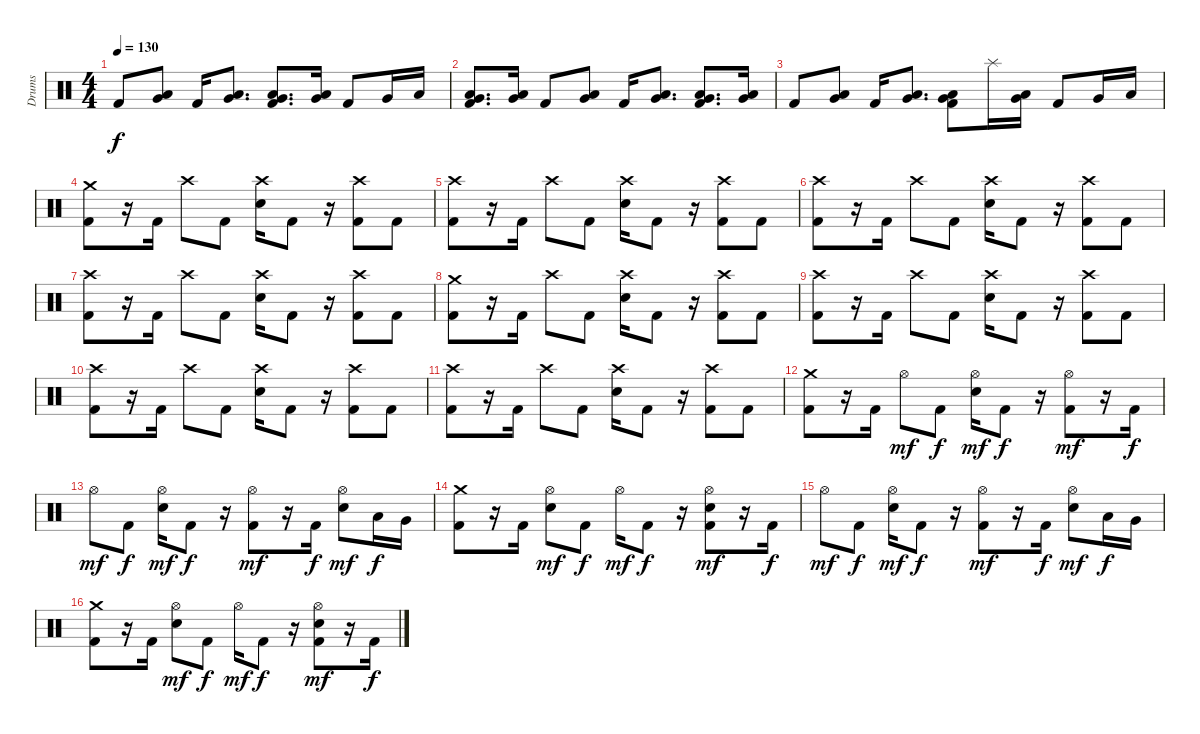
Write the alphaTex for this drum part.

\track ("Drums" "Drums") {instrument percussion}
\staff {score}
\articulation defaults
\ts (4 4)
\tempo 130
\clef neutral
\ks c "Kick (hit) 2".8{dy f}
("Low Floor Tom (hit)" "Very Low Tom (hit)").8 "Kick (hit) 2".16 ("Low Floor Tom (hit)" "Very Low Tom (hit)").8{d} ("Kick (hit) 2" "Low Floor Tom (hit)" "Very Low Tom (hit)").8{d} ("Low Floor Tom (hit)" "Very Low Tom (hit)").16 "Kick (hit) 2".8 "Very Low Tom (hit)".16 "Low Floor Tom (hit)".16 |
("Kick (hit) 2" "Very Low Tom (hit)" "Low Tom (hit)").8{d} ("Low Floor Tom (hit)" "Very Low Tom (hit)").16 "Kick (hit) 2".8 ("Low Floor Tom (hit)" "Very Low Tom (hit)").8 "Kick (hit) 2".16 ("Low Floor Tom (hit)" "Very Low Tom (hit)").8{d} ("Kick (hit) 2" "Low Floor Tom (hit)" "Very Low Tom (hit)").8{d} ("Low Floor Tom (hit)" "Very Low Tom (hit)").16 |
"Kick (hit) 2".8 ("Low Floor Tom (hit)" "Very Low Tom (hit)").8 "Kick (hit) 2".16 ("Low Floor Tom (hit)" "Very Low Tom (hit)").8{d} ("Kick (hit) 2" "Low Floor Tom (hit)" "Very Low Tom (hit)").8 "Splash (hit)".16 ("Low Floor Tom (hit)" "Very Low Tom (hit)").16 "Kick (hit) 2".8 "Very Low Tom (hit)".16 "Low Floor Tom (hit)".16 |
("Kick (hit) 2" "Crash medium (hit)").8 r.16 "Kick (hit) 2".16 "Crash high (hit)".8 "Kick (hit) 2".8 ("Crash high (hit)" "Electric Snare (hit)").16 "Kick (hit) 2".8 r.16 ("Kick (hit) 2" "Crash high (hit)").8 "Kick (hit) 2".8 |
("Kick (hit) 2" "Crash high (hit)").8 r.16 "Kick (hit) 2".16 "Crash high (hit)".8 "Kick (hit) 2".8 ("Crash high (hit)" "Electric Snare (hit)").16 "Kick (hit) 2".8 r.16 ("Kick (hit) 2" "Crash high (hit)").8 "Kick (hit) 2".8 |
("Kick (hit) 2" "Crash high (hit)").8 r.16 "Kick (hit) 2".16 "Crash high (hit)".8 "Kick (hit) 2".8 ("Crash high (hit)" "Electric Snare (hit)").16 "Kick (hit) 2".8 r.16 ("Kick (hit) 2" "Crash high (hit)").8 "Kick (hit) 2".8 |
("Kick (hit) 2" "Crash high (hit)").8 r.16 "Kick (hit) 2".16 "Crash high (hit)".8 "Kick (hit) 2".8 ("Crash high (hit)" "Electric Snare (hit)").16 "Kick (hit) 2".8 r.16 ("Kick (hit) 2" "Crash high (hit)").8 "Kick (hit) 2".8 |
("Kick (hit) 2" "Crash medium (hit)").8 r.16 "Kick (hit) 2".16 "Crash high (hit)".8 "Kick (hit) 2".8 ("Crash high (hit)" "Electric Snare (hit)").16 "Kick (hit) 2".8 r.16 ("Kick (hit) 2" "Crash high (hit)").8 "Kick (hit) 2".8 |
("Kick (hit) 2" "Crash high (hit)").8 r.16 "Kick (hit) 2".16 "Crash high (hit)".8 "Kick (hit) 2".8 ("Crash high (hit)" "Electric Snare (hit)").16 "Kick (hit) 2".8 r.16 ("Kick (hit) 2" "Crash high (hit)").8 "Kick (hit) 2".8 |
("Kick (hit) 2" "Crash high (hit)").8 r.16 "Kick (hit) 2".16 "Crash high (hit)".8 "Kick (hit) 2".8 ("Crash high (hit)" "Electric Snare (hit)").16 "Kick (hit) 2".8 r.16 ("Kick (hit) 2" "Crash high (hit)").8 "Kick (hit) 2".8 |
("Kick (hit) 2" "Crash high (hit)").8 r.16 "Kick (hit) 2".16 "Crash high (hit)".8 "Kick (hit) 2".8 ("Crash high (hit)" "Electric Snare (hit)").16 "Kick (hit) 2".8 r.16 ("Kick (hit) 2" "Crash high (hit)").8 "Kick (hit) 2".8 |
("Kick (hit) 2" "Crash medium (hit)").8 r.16 "Kick (hit) 2".16 "Hi-Hat (open)".8{dy mf} "Kick (hit) 2".8{dy f} ("Hi-Hat (open)" "Electric Snare (hit)").16{dy mf} "Kick (hit) 2".8{dy f} r.16 ("Kick (hit) 2" "Hi-Hat (open)").8{dy mf} r.16 "Kick (hit) 2".16{dy f} |
"Hi-Hat (open)".8{dy mf} "Kick (hit) 2".8{dy f} ("Hi-Hat (open)" "Electric Snare (hit)").16{dy mf} "Kick (hit) 2".8{dy f} r.16 ("Kick (hit) 2" "Hi-Hat (open)").8{dy mf} r.16 "Kick (hit) 2".16{dy f} ("Hi-Hat (open)" "Electric Snare (hit)").8{dy mf} "Low Tom (hit)".16{dy f} "Very Low Tom (hit)".16 |
("Kick (hit) 2" "Crash medium (hit)").8 r.16 "Kick (hit) 2".16 ("Hi-Hat (open)" "Electric Snare (hit)").8{dy mf} "Kick (hit) 2".8{dy f} "Hi-Hat (open)".16{dy mf} "Kick (hit) 2".8{dy f} r.16 ("Kick (hit) 2" "Hi-Hat (open)" "Electric Snare (hit)").8{dy mf} r.16 "Kick (hit) 2".16{dy f} |
"Hi-Hat (open)".8{dy mf} "Kick (hit) 2".8{dy f} ("Hi-Hat (open)" "Electric Snare (hit)").16{dy mf} "Kick (hit) 2".8{dy f} r.16 ("Kick (hit) 2" "Hi-Hat (open)").8{dy mf} r.16 "Kick (hit) 2".16{dy f} ("Hi-Hat (open)" "Electric Snare (hit)").8{dy mf} "Low Tom (hit)".16{dy f} "Very Low Tom (hit)".16 |
("Kick (hit) 2" "Crash medium (hit)").8 r.16 "Kick (hit) 2".16 ("Hi-Hat (open)" "Electric Snare (hit)").8{dy mf} "Kick (hit) 2".8{dy f} "Hi-Hat (open)".16{dy mf} "Kick (hit) 2".8{dy f} r.16 ("Kick (hit) 2" "Hi-Hat (open)" "Electric Snare (hit)").8{dy mf} r.16 "Kick (hit) 2".16{dy f}
